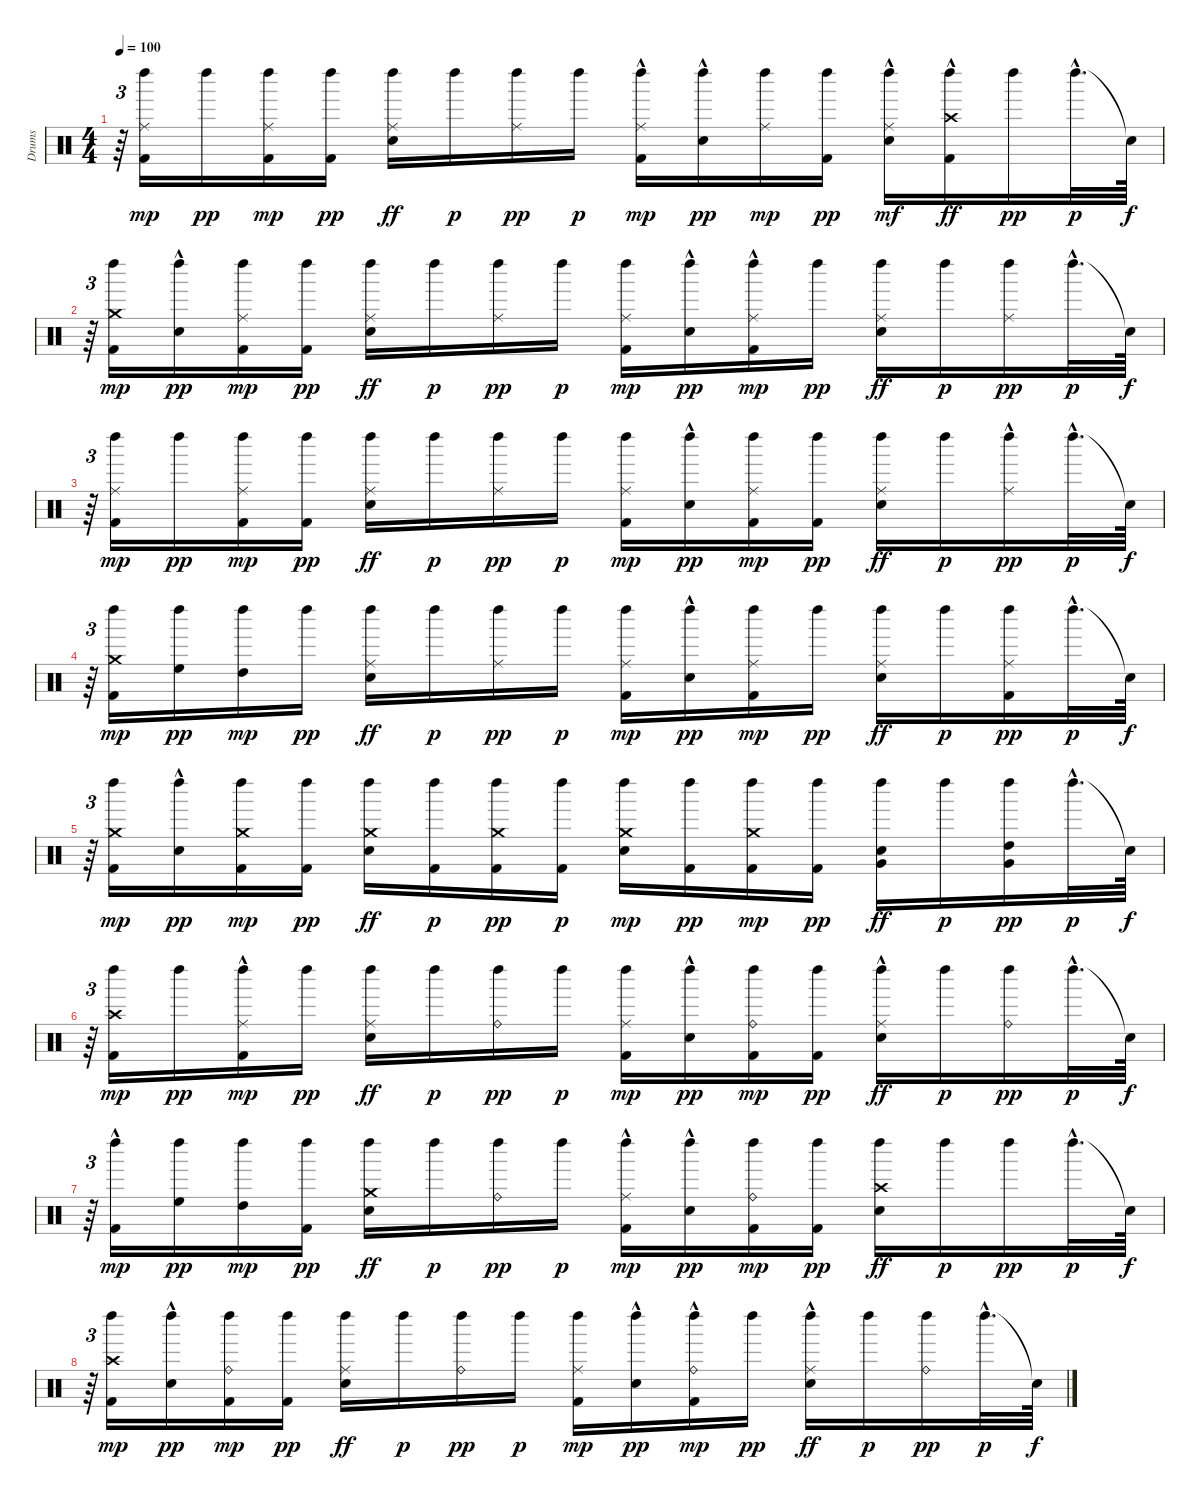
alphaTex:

\track ("Drums" "Drums") {instrument percussion}
\staff {score}
\articulation defaults
\ts (4 4)
\tempo 100
\clef neutral
\ks c
r.64{tu (3 2) dy f} ("Ride (middle)" "Kick (hit) 2" "Left Maraca (hit)").16{dy mp} "Left Maraca (hit)".16{dy pp} ("Ride (middle)" "Kick (hit) 2" "Left Maraca (hit)").16{dy mp} ("Kick (hit) 2" "Left Maraca (hit)").16{dy pp} ("Ride (middle)" "Snare (hit) 2" "Left Maraca (hit)").16{dy ff} "Left Maraca (hit)".16{dy p} ("Ride (middle)" "Left Maraca (hit)").16{dy pp} "Left Maraca (hit)".16{dy p} ("Ride (middle)" "Kick (hit) 2"{hac} "Left Maraca (hit)").16{dy mp} ("Snare (hit) 2"{hac} "Left Maraca (hit)").16{dy pp} ("Ride (middle)" "Left Maraca (hit)").16{dy mp} ("Kick (hit) 2" "Left Maraca (hit)").16{dy pp} ("Ride (middle)"{hac} "Snare (hit) 2" "Left Maraca (hit)").16{dy mf} ("Crash high (hit)" "Kick (hit) 2"{hac} "Left Maraca (hit)").16{dy ff} "Left Maraca (hit)".16{dy pp} "Left Maraca (hit)"{hac}.32{d dy p} "Snare (hit)"{t}.64{dy f} |
r.64{tu (3 2)} ("Crash medium (hit)" "Kick (hit) 2" "Left Maraca (hit)").16{dy mp} ("Snare (hit) 2"{hac} "Left Maraca (hit)").16{dy pp} ("Ride (middle)" "Kick (hit) 2" "Left Maraca (hit)").16{dy mp} ("Kick (hit) 2" "Left Maraca (hit)").16{dy pp} ("Ride (middle)" "Snare (hit) 2" "Left Maraca (hit)").16{dy ff} "Left Maraca (hit)".16{dy p} ("Ride (middle)" "Left Maraca (hit)").16{dy pp} "Left Maraca (hit)".16{dy p} ("Ride (middle)" "Kick (hit) 2" "Left Maraca (hit)").16{dy mp} ("Snare (hit) 2"{hac} "Left Maraca (hit)").16{dy pp} ("Ride (middle)" "Kick (hit) 2"{hac} "Left Maraca (hit)").16{dy mp} "Left Maraca (hit)".16{dy pp} ("Ride (middle)" "Snare (hit) 2" "Left Maraca (hit)").16{dy ff} "Left Maraca (hit)".16{dy p} ("Ride (middle)" "Left Maraca (hit)").16{dy pp} "Left Maraca (hit)"{hac}.32{d dy p} "Snare (hit)"{t}.64{dy f} |
r.64{tu (3 2)} ("Ride (middle)" "Kick (hit) 2" "Left Maraca (hit)").16{dy mp} "Left Maraca (hit)".16{dy pp} ("Ride (middle)" "Kick (hit) 2" "Left Maraca (hit)").16{dy mp} ("Kick (hit) 2" "Left Maraca (hit)").16{dy pp} ("Ride (middle)" "Snare (hit) 2" "Left Maraca (hit)").16{dy ff} "Left Maraca (hit)".16{dy p} ("Ride (middle)" "Left Maraca (hit)").16{dy pp} "Left Maraca (hit)".16{dy p} ("Ride (middle)" "Kick (hit) 2" "Left Maraca (hit)").16{dy mp} ("Snare (hit) 2"{hac} "Left Maraca (hit)").16{dy pp} ("Ride (middle)" "Kick (hit) 2" "Left Maraca (hit)").16{dy mp} ("Kick (hit) 2" "Left Maraca (hit)").16{dy pp} ("Ride (middle)" "Snare (hit) 2" "Left Maraca (hit)").16{dy ff} "Left Maraca (hit)".16{dy p} ("Ride (middle)"{hac} "Left Maraca (hit)").16{dy pp} "Left Maraca (hit)"{hac}.32{d dy p} "Snare (hit)"{t}.64{dy f} |
r.64{tu (3 2)} ("Crash medium (hit)" "Kick (hit) 2" "Left Maraca (hit)").16{dy mp} ("High Floor Tom (hit)" "Left Maraca (hit)").16{dy pp} ("High Tom (hit)" "Left Maraca (hit)").16{dy mp} "Left Maraca (hit)".16{dy pp} ("Ride (middle)" "Snare (hit) 2" "Left Maraca (hit)").16{dy ff} "Left Maraca (hit)".16{dy p} ("Ride (middle)" "Left Maraca (hit)").16{dy pp} "Left Maraca (hit)".16{dy p} ("Ride (middle)" "Kick (hit) 2" "Left Maraca (hit)").16{dy mp} ("Snare (hit) 2"{hac} "Left Maraca (hit)").16{dy pp} ("Ride (middle)" "Kick (hit) 2" "Left Maraca (hit)").16{dy mp} "Left Maraca (hit)".16{dy pp} ("Ride (middle)" "Snare (hit) 2" "Left Maraca (hit)").16{dy ff} "Left Maraca (hit)".16{dy p} ("Ride (middle)" "Kick (hit) 2" "Left Maraca (hit)").16{dy pp} "Left Maraca (hit)"{hac}.32{d dy p} "Snare (hit)"{t}.64{dy f} |
r.64{tu (3 2)} ("Crash medium (hit)" "Kick (hit) 2" "Left Maraca (hit)").16{dy mp} ("Snare (hit) 2"{hac} "Left Maraca (hit)").16{dy pp} ("Crash medium (hit)" "Kick (hit) 2" "Left Maraca (hit)").16{dy mp} ("Kick (hit) 2" "Left Maraca (hit)").16{dy pp} ("Crash medium (hit)" "Snare (hit) 2" "Left Maraca (hit)").16{dy ff} ("Kick (hit) 2" "Left Maraca (hit)").16{dy p} ("Crash medium (hit)" "Kick (hit) 2" "Left Maraca (hit)").16{dy pp} ("Kick (hit) 2" "Left Maraca (hit)").16{dy p} ("Crash medium (hit)" "Snare (hit) 2" "Left Maraca (hit)").16{dy mp} ("Kick (hit) 2" "Left Maraca (hit)").16{dy pp} ("Crash medium (hit)" "Kick (hit) 2" "Left Maraca (hit)").16{dy mp} ("Kick (hit) 2" "Left Maraca (hit)").16{dy pp} ("Snare (hit) 2" "Left Maraca (hit)" "Very Low Tom (hit)").16{dy ff} "Left Maraca (hit)".16{dy p} ("High Tom (hit)" "Very Low Tom (hit)" "Left Maraca (hit)").16{dy pp} "Left Maraca (hit)"{hac}.32{d dy p} "Snare (hit)"{t}.64{dy f} |
r.64{tu (3 2)} ("Crash high (hit)" "Kick (hit) 2" "Left Maraca (hit)").16{dy mp} "Left Maraca (hit)".16{dy pp} ("Ride (middle)" "Kick (hit) 2"{hac} "Left Maraca (hit)").16{dy mp} "Left Maraca (hit)".16{dy pp} ("Ride (middle)" "Snare (hit) 2" "Left Maraca (hit)").16{dy ff} "Left Maraca (hit)".16{dy p} ("Ride (bell)" "Left Maraca (hit)").16{dy pp} "Left Maraca (hit)".16{dy p} ("Ride (middle)" "Kick (hit) 2" "Left Maraca (hit)").16{dy mp} ("Snare (hit) 2"{hac} "Left Maraca (hit)").16{dy pp} ("Ride (bell)" "Kick (hit) 2" "Left Maraca (hit)").16{dy mp} ("Kick (hit) 2" "Left Maraca (hit)").16{dy pp} ("Ride (middle)"{hac} "Snare (hit) 2" "Left Maraca (hit)").16{dy ff} "Left Maraca (hit)".16{dy p} ("Ride (bell)" "Left Maraca (hit)").16{dy pp} "Left Maraca (hit)"{hac}.32{d dy p} "Snare (hit)"{t}.64{dy f} |
r.64{tu (3 2)} ("Kick (hit) 2"{hac} "Left Maraca (hit)").16{dy mp} ("High Floor Tom (hit)" "Left Maraca (hit)").16{dy pp} ("High Tom (hit)" "Left Maraca (hit)").16{dy mp} ("Kick (hit) 2" "Left Maraca (hit)").16{dy pp} ("Crash medium (hit)" "Snare (hit) 2" "Left Maraca (hit)").16{dy ff} "Left Maraca (hit)".16{dy p} ("Ride (bell)" "Left Maraca (hit)").16{dy pp} "Left Maraca (hit)".16{dy p} ("Ride (middle)"{hac} "Kick (hit) 2" "Left Maraca (hit)").16{dy mp} ("Snare (hit) 2"{hac} "Left Maraca (hit)").16{dy pp} ("Ride (bell)" "Kick (hit) 2" "Left Maraca (hit)").16{dy mp} ("Kick (hit) 2" "Left Maraca (hit)").16{dy pp} ("Crash high (hit)" "Snare (hit) 2" "Left Maraca (hit)").16{dy ff} "Left Maraca (hit)".16{dy p} "Left Maraca (hit)".16{dy pp} "Left Maraca (hit)"{hac}.32{d dy p} "Snare (hit)"{t}.64{dy f} |
r.64{tu (3 2)} ("Crash high (hit)" "Kick (hit) 2" "Left Maraca (hit)").16{dy mp} ("Snare (hit) 2"{hac} "Left Maraca (hit)").16{dy pp} ("Ride (bell)" "Kick (hit) 2" "Left Maraca (hit)").16{dy mp} ("Kick (hit) 2" "Left Maraca (hit)").16{dy pp} ("Ride (middle)" "Snare (hit) 2" "Left Maraca (hit)").16{dy ff} "Left Maraca (hit)".16{dy p} ("Ride (bell)" "Left Maraca (hit)").16{dy pp} "Left Maraca (hit)".16{dy p} ("Ride (middle)" "Kick (hit) 2" "Left Maraca (hit)").16{dy mp} ("Snare (hit) 2"{hac} "Left Maraca (hit)").16{dy pp} ("Ride (bell)" "Kick (hit) 2"{hac} "Left Maraca (hit)").16{dy mp} "Left Maraca (hit)".16{dy pp} ("Ride (middle)"{hac} "Snare (hit) 2" "Left Maraca (hit)").16{dy ff} "Left Maraca (hit)".16{dy p} ("Ride (bell)" "Left Maraca (hit)").16{dy pp} "Left Maraca (hit)"{hac}.32{d dy p} "Snare (hit)"{t}.64{dy f}
